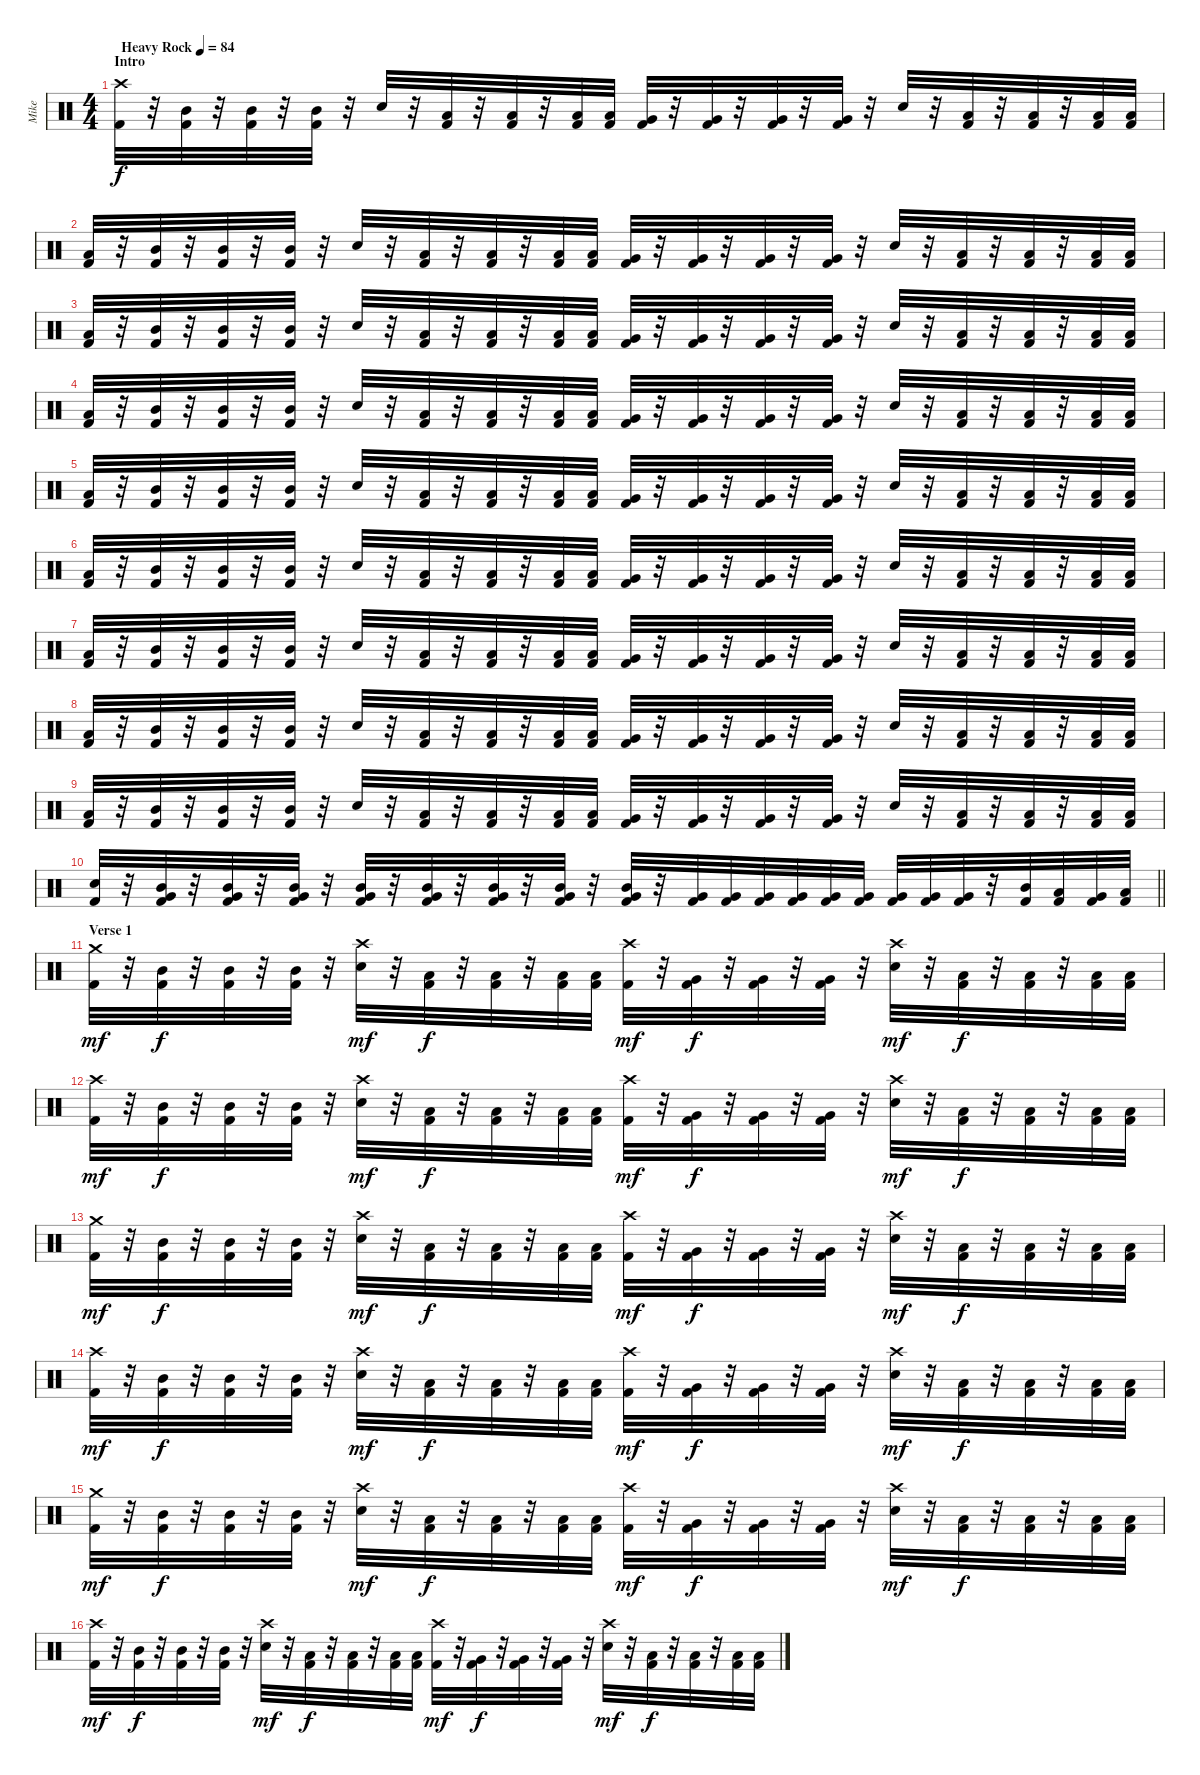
\track ("Mike" "Mike") {instrument percussion}
\staff {score}
\articulation defaults
\ts (4 4)
\section ("" "Intro")
\tempo (84 "Heavy Rock")
\clef neutral
\ks c
("Crash high (hit)" "Kick (hit) 2").32{dy f} r.32 ("Mid Tom (hit)" "Kick (hit) 2").32 r.32 ("Mid Tom (hit)" "Kick (hit) 2").32 r.32 ("Mid Tom (hit)" "Kick (hit) 2").32 r.32 "Snare (hit) 2".32 r.32 ("Low Tom (hit)" "Kick (hit) 2").32 r.32 ("Low Tom (hit)" "Kick (hit) 2").32 r.32 ("Low Tom (hit)" "Kick (hit) 2").32 ("Low Tom (hit)" "Kick (hit) 2").32 ("Very Low Tom (hit)" "Kick (hit) 2").32 r.32 ("Very Low Tom (hit)" "Kick (hit) 2").32 r.32 ("Very Low Tom (hit)" "Kick (hit) 2").32 r.32 ("Very Low Tom (hit)" "Kick (hit) 2").32 r.32 "Snare (hit) 2".32 r.32 ("Low Tom (hit)" "Kick (hit) 2").32 r.32 ("Low Tom (hit)" "Kick (hit) 2").32 r.32 ("Low Tom (hit)" "Kick (hit) 2").32 ("Low Tom (hit)" "Kick (hit) 2").32 |
("Low Tom (hit)" "Kick (hit) 2").32 r.32 ("Mid Tom (hit)" "Kick (hit) 2").32 r.32 ("Mid Tom (hit)" "Kick (hit) 2").32 r.32 ("Mid Tom (hit)" "Kick (hit) 2").32 r.32 "Snare (hit) 2".32 r.32 ("Low Tom (hit)" "Kick (hit) 2").32 r.32 ("Low Tom (hit)" "Kick (hit) 2").32 r.32 ("Low Tom (hit)" "Kick (hit) 2").32 ("Low Tom (hit)" "Kick (hit) 2").32 ("Very Low Tom (hit)" "Kick (hit) 2").32 r.32 ("Very Low Tom (hit)" "Kick (hit) 2").32 r.32 ("Very Low Tom (hit)" "Kick (hit) 2").32 r.32 ("Very Low Tom (hit)" "Kick (hit) 2").32 r.32 "Snare (hit) 2".32 r.32 ("Low Tom (hit)" "Kick (hit) 2").32 r.32 ("Low Tom (hit)" "Kick (hit) 2").32 r.32 ("Low Tom (hit)" "Kick (hit) 2").32 ("Low Tom (hit)" "Kick (hit) 2").32 |
("Low Tom (hit)" "Kick (hit) 2").32 r.32 ("Mid Tom (hit)" "Kick (hit) 2").32 r.32 ("Mid Tom (hit)" "Kick (hit) 2").32 r.32 ("Mid Tom (hit)" "Kick (hit) 2").32 r.32 "Snare (hit) 2".32 r.32 ("Low Tom (hit)" "Kick (hit) 2").32 r.32 ("Low Tom (hit)" "Kick (hit) 2").32 r.32 ("Low Tom (hit)" "Kick (hit) 2").32 ("Low Tom (hit)" "Kick (hit) 2").32 ("Very Low Tom (hit)" "Kick (hit) 2").32 r.32 ("Very Low Tom (hit)" "Kick (hit) 2").32 r.32 ("Very Low Tom (hit)" "Kick (hit) 2").32 r.32 ("Very Low Tom (hit)" "Kick (hit) 2").32 r.32 "Snare (hit) 2".32 r.32 ("Low Tom (hit)" "Kick (hit) 2").32 r.32 ("Low Tom (hit)" "Kick (hit) 2").32 r.32 ("Low Tom (hit)" "Kick (hit) 2").32 ("Low Tom (hit)" "Kick (hit) 2").32 |
("Low Tom (hit)" "Kick (hit) 2").32 r.32 ("Mid Tom (hit)" "Kick (hit) 2").32 r.32 ("Mid Tom (hit)" "Kick (hit) 2").32 r.32 ("Mid Tom (hit)" "Kick (hit) 2").32 r.32 "Snare (hit) 2".32 r.32 ("Low Tom (hit)" "Kick (hit) 2").32 r.32 ("Low Tom (hit)" "Kick (hit) 2").32 r.32 ("Low Tom (hit)" "Kick (hit) 2").32 ("Low Tom (hit)" "Kick (hit) 2").32 ("Very Low Tom (hit)" "Kick (hit) 2").32 r.32 ("Very Low Tom (hit)" "Kick (hit) 2").32 r.32 ("Very Low Tom (hit)" "Kick (hit) 2").32 r.32 ("Very Low Tom (hit)" "Kick (hit) 2").32 r.32 "Snare (hit) 2".32 r.32 ("Low Tom (hit)" "Kick (hit) 2").32 r.32 ("Low Tom (hit)" "Kick (hit) 2").32 r.32 ("Low Tom (hit)" "Kick (hit) 2").32 ("Low Tom (hit)" "Kick (hit) 2").32 |
("Low Tom (hit)" "Kick (hit) 2").32 r.32 ("Mid Tom (hit)" "Kick (hit) 2").32 r.32 ("Mid Tom (hit)" "Kick (hit) 2").32 r.32 ("Mid Tom (hit)" "Kick (hit) 2").32 r.32 "Snare (hit) 2".32 r.32 ("Low Tom (hit)" "Kick (hit) 2").32 r.32 ("Low Tom (hit)" "Kick (hit) 2").32 r.32 ("Low Tom (hit)" "Kick (hit) 2").32 ("Low Tom (hit)" "Kick (hit) 2").32 ("Very Low Tom (hit)" "Kick (hit) 2").32 r.32 ("Very Low Tom (hit)" "Kick (hit) 2").32 r.32 ("Very Low Tom (hit)" "Kick (hit) 2").32 r.32 ("Very Low Tom (hit)" "Kick (hit) 2").32 r.32 "Snare (hit) 2".32 r.32 ("Low Tom (hit)" "Kick (hit) 2").32 r.32 ("Low Tom (hit)" "Kick (hit) 2").32 r.32 ("Low Tom (hit)" "Kick (hit) 2").32 ("Low Tom (hit)" "Kick (hit) 2").32 |
("Low Tom (hit)" "Kick (hit) 2").32 r.32 ("Mid Tom (hit)" "Kick (hit) 2").32 r.32 ("Mid Tom (hit)" "Kick (hit) 2").32 r.32 ("Mid Tom (hit)" "Kick (hit) 2").32 r.32 "Snare (hit) 2".32 r.32 ("Low Tom (hit)" "Kick (hit) 2").32 r.32 ("Low Tom (hit)" "Kick (hit) 2").32 r.32 ("Low Tom (hit)" "Kick (hit) 2").32 ("Low Tom (hit)" "Kick (hit) 2").32 ("Very Low Tom (hit)" "Kick (hit) 2").32 r.32 ("Very Low Tom (hit)" "Kick (hit) 2").32 r.32 ("Very Low Tom (hit)" "Kick (hit) 2").32 r.32 ("Very Low Tom (hit)" "Kick (hit) 2").32 r.32 "Snare (hit) 2".32 r.32 ("Low Tom (hit)" "Kick (hit) 2").32 r.32 ("Low Tom (hit)" "Kick (hit) 2").32 r.32 ("Low Tom (hit)" "Kick (hit) 2").32 ("Low Tom (hit)" "Kick (hit) 2").32 |
("Low Tom (hit)" "Kick (hit) 2").32 r.32 ("Mid Tom (hit)" "Kick (hit) 2").32 r.32 ("Mid Tom (hit)" "Kick (hit) 2").32 r.32 ("Mid Tom (hit)" "Kick (hit) 2").32 r.32 "Snare (hit) 2".32 r.32 ("Low Tom (hit)" "Kick (hit) 2").32 r.32 ("Low Tom (hit)" "Kick (hit) 2").32 r.32 ("Low Tom (hit)" "Kick (hit) 2").32 ("Low Tom (hit)" "Kick (hit) 2").32 ("Very Low Tom (hit)" "Kick (hit) 2").32 r.32 ("Very Low Tom (hit)" "Kick (hit) 2").32 r.32 ("Very Low Tom (hit)" "Kick (hit) 2").32 r.32 ("Very Low Tom (hit)" "Kick (hit) 2").32 r.32 "Snare (hit) 2".32 r.32 ("Low Tom (hit)" "Kick (hit) 2").32 r.32 ("Low Tom (hit)" "Kick (hit) 2").32 r.32 ("Low Tom (hit)" "Kick (hit) 2").32 ("Low Tom (hit)" "Kick (hit) 2").32 |
("Low Tom (hit)" "Kick (hit) 2").32 r.32 ("Mid Tom (hit)" "Kick (hit) 2").32 r.32 ("Mid Tom (hit)" "Kick (hit) 2").32 r.32 ("Mid Tom (hit)" "Kick (hit) 2").32 r.32 "Snare (hit) 2".32 r.32 ("Low Tom (hit)" "Kick (hit) 2").32 r.32 ("Low Tom (hit)" "Kick (hit) 2").32 r.32 ("Low Tom (hit)" "Kick (hit) 2").32 ("Low Tom (hit)" "Kick (hit) 2").32 ("Very Low Tom (hit)" "Kick (hit) 2").32 r.32 ("Very Low Tom (hit)" "Kick (hit) 2").32 r.32 ("Very Low Tom (hit)" "Kick (hit) 2").32 r.32 ("Very Low Tom (hit)" "Kick (hit) 2").32 r.32 "Snare (hit) 2".32 r.32 ("Low Tom (hit)" "Kick (hit) 2").32 r.32 ("Low Tom (hit)" "Kick (hit) 2").32 r.32 ("Low Tom (hit)" "Kick (hit) 2").32 ("Low Tom (hit)" "Kick (hit) 2").32 |
("Low Tom (hit)" "Kick (hit) 2").32 r.32 ("Mid Tom (hit)" "Kick (hit) 2").32 r.32 ("Mid Tom (hit)" "Kick (hit) 2").32 r.32 ("Mid Tom (hit)" "Kick (hit) 2").32 r.32 "Snare (hit) 2".32 r.32 ("Low Tom (hit)" "Kick (hit) 2").32 r.32 ("Low Tom (hit)" "Kick (hit) 2").32 r.32 ("Low Tom (hit)" "Kick (hit) 2").32 ("Low Tom (hit)" "Kick (hit) 2").32 ("Very Low Tom (hit)" "Kick (hit) 2").32 r.32 ("Very Low Tom (hit)" "Kick (hit) 2").32 r.32 ("Very Low Tom (hit)" "Kick (hit) 2").32 r.32 ("Very Low Tom (hit)" "Kick (hit) 2").32 r.32 "Snare (hit) 2".32 r.32 ("Low Tom (hit)" "Kick (hit) 2").32 r.32 ("Low Tom (hit)" "Kick (hit) 2").32 r.32 ("Low Tom (hit)" "Kick (hit) 2").32 ("Low Tom (hit)" "Kick (hit) 2").32 |
\barLineRight lightlight
("Snare (hit) 2" "Kick (hit) 2").32 r.32 ("Mid Tom (hit)" "Very Low Tom (hit)" "Kick (hit) 2").32 r.32 ("Mid Tom (hit)" "Very Low Tom (hit)" "Kick (hit) 2").32 r.32 ("Mid Tom (hit)" "Very Low Tom (hit)" "Kick (hit) 2").32 r.32 ("Mid Tom (hit)" "Very Low Tom (hit)" "Kick (hit) 2").32 r.32 ("Mid Tom (hit)" "Very Low Tom (hit)" "Kick (hit) 2").32 r.32 ("Mid Tom (hit)" "Very Low Tom (hit)" "Kick (hit) 2").32 r.32 ("Mid Tom (hit)" "Very Low Tom (hit)" "Kick (hit) 2").32 r.32 ("Mid Tom (hit)" "Very Low Tom (hit)" "Kick (hit) 2").32 r.32 ("Very Low Tom (hit)" "Kick (hit) 2").32 ("Very Low Tom (hit)" "Kick (hit) 2").32 ("Very Low Tom (hit)" "Kick (hit) 2").32 ("Very Low Tom (hit)" "Kick (hit) 2").32 ("Very Low Tom (hit)" "Kick (hit) 2").32 ("Very Low Tom (hit)" "Kick (hit) 2").32 ("Very Low Tom (hit)" "Kick (hit) 2").32 ("Very Low Tom (hit)" "Kick (hit) 2").32 ("Very Low Tom (hit)" "Kick (hit) 2").32 r.32 ("Mid Tom (hit)" "Kick (hit) 2").32 ("Low Tom (hit)" "Kick (hit) 2").32 ("Very Low Tom (hit)" "Kick (hit) 2").32 ("Low Floor Tom (hit)" "Kick (hit) 2").32 |
\section ("" "Verse 1")
("Crash medium (hit)" "Kick (hit) 2").32{dy mf} r.32 ("Mid Tom (hit)" "Kick (hit) 2").32{dy f} r.32 ("Mid Tom (hit)" "Kick (hit) 2").32 r.32 ("Mid Tom (hit)" "Kick (hit) 2").32 r.32 ("Crash high (hit)" "Snare (hit) 2").32{dy mf} r.32 ("Low Tom (hit)" "Kick (hit) 2").32{dy f} r.32 ("Low Tom (hit)" "Kick (hit) 2").32 r.32 ("Low Tom (hit)" "Kick (hit) 2").32 ("Low Tom (hit)" "Kick (hit) 2").32 ("Crash high (hit)" "Kick (hit) 2").32{dy mf} r.32 ("Very Low Tom (hit)" "Kick (hit) 2").32{dy f} r.32 ("Very Low Tom (hit)" "Kick (hit) 2").32 r.32 ("Very Low Tom (hit)" "Kick (hit) 2").32 r.32 ("Crash high (hit)" "Snare (hit) 2").32{dy mf} r.32 ("Low Tom (hit)" "Kick (hit) 2").32{dy f} r.32 ("Low Tom (hit)" "Kick (hit) 2").32 r.32 ("Low Tom (hit)" "Kick (hit) 2").32 ("Low Tom (hit)" "Kick (hit) 2").32 |
("Crash high (hit)" "Kick (hit) 2").32{dy mf} r.32 ("Mid Tom (hit)" "Kick (hit) 2").32{dy f} r.32 ("Mid Tom (hit)" "Kick (hit) 2").32 r.32 ("Mid Tom (hit)" "Kick (hit) 2").32 r.32 ("Crash high (hit)" "Snare (hit) 2").32{dy mf} r.32 ("Low Tom (hit)" "Kick (hit) 2").32{dy f} r.32 ("Low Tom (hit)" "Kick (hit) 2").32 r.32 ("Low Tom (hit)" "Kick (hit) 2").32 ("Low Tom (hit)" "Kick (hit) 2").32 ("Crash high (hit)" "Kick (hit) 2").32{dy mf} r.32 ("Very Low Tom (hit)" "Kick (hit) 2").32{dy f} r.32 ("Very Low Tom (hit)" "Kick (hit) 2").32 r.32 ("Very Low Tom (hit)" "Kick (hit) 2").32 r.32 ("Crash high (hit)" "Snare (hit) 2").32{dy mf} r.32 ("Low Tom (hit)" "Kick (hit) 2").32{dy f} r.32 ("Low Tom (hit)" "Kick (hit) 2").32 r.32 ("Low Tom (hit)" "Kick (hit) 2").32 ("Low Tom (hit)" "Kick (hit) 2").32 |
("Crash medium (hit)" "Kick (hit) 2").32{dy mf} r.32 ("Mid Tom (hit)" "Kick (hit) 2").32{dy f} r.32 ("Mid Tom (hit)" "Kick (hit) 2").32 r.32 ("Mid Tom (hit)" "Kick (hit) 2").32 r.32 ("Crash high (hit)" "Snare (hit) 2").32{dy mf} r.32 ("Low Tom (hit)" "Kick (hit) 2").32{dy f} r.32 ("Low Tom (hit)" "Kick (hit) 2").32 r.32 ("Low Tom (hit)" "Kick (hit) 2").32 ("Low Tom (hit)" "Kick (hit) 2").32 ("Crash high (hit)" "Kick (hit) 2").32{dy mf} r.32 ("Very Low Tom (hit)" "Kick (hit) 2").32{dy f} r.32 ("Very Low Tom (hit)" "Kick (hit) 2").32 r.32 ("Very Low Tom (hit)" "Kick (hit) 2").32 r.32 ("Crash high (hit)" "Snare (hit) 2").32{dy mf} r.32 ("Low Tom (hit)" "Kick (hit) 2").32{dy f} r.32 ("Low Tom (hit)" "Kick (hit) 2").32 r.32 ("Low Tom (hit)" "Kick (hit) 2").32 ("Low Tom (hit)" "Kick (hit) 2").32 |
("Crash high (hit)" "Kick (hit) 2").32{dy mf} r.32 ("Mid Tom (hit)" "Kick (hit) 2").32{dy f} r.32 ("Mid Tom (hit)" "Kick (hit) 2").32 r.32 ("Mid Tom (hit)" "Kick (hit) 2").32 r.32 ("Crash high (hit)" "Snare (hit) 2").32{dy mf} r.32 ("Low Tom (hit)" "Kick (hit) 2").32{dy f} r.32 ("Low Tom (hit)" "Kick (hit) 2").32 r.32 ("Low Tom (hit)" "Kick (hit) 2").32 ("Low Tom (hit)" "Kick (hit) 2").32 ("Crash high (hit)" "Kick (hit) 2").32{dy mf} r.32 ("Very Low Tom (hit)" "Kick (hit) 2").32{dy f} r.32 ("Very Low Tom (hit)" "Kick (hit) 2").32 r.32 ("Very Low Tom (hit)" "Kick (hit) 2").32 r.32 ("Crash high (hit)" "Snare (hit) 2").32{dy mf} r.32 ("Low Tom (hit)" "Kick (hit) 2").32{dy f} r.32 ("Low Tom (hit)" "Kick (hit) 2").32 r.32 ("Low Tom (hit)" "Kick (hit) 2").32 ("Low Tom (hit)" "Kick (hit) 2").32 |
("Crash medium (hit)" "Kick (hit) 2").32{dy mf} r.32 ("Mid Tom (hit)" "Kick (hit) 2").32{dy f} r.32 ("Mid Tom (hit)" "Kick (hit) 2").32 r.32 ("Mid Tom (hit)" "Kick (hit) 2").32 r.32 ("Crash high (hit)" "Snare (hit) 2").32{dy mf} r.32 ("Low Tom (hit)" "Kick (hit) 2").32{dy f} r.32 ("Low Tom (hit)" "Kick (hit) 2").32 r.32 ("Low Tom (hit)" "Kick (hit) 2").32 ("Low Tom (hit)" "Kick (hit) 2").32 ("Crash high (hit)" "Kick (hit) 2").32{dy mf} r.32 ("Very Low Tom (hit)" "Kick (hit) 2").32{dy f} r.32 ("Very Low Tom (hit)" "Kick (hit) 2").32 r.32 ("Very Low Tom (hit)" "Kick (hit) 2").32 r.32 ("Crash high (hit)" "Snare (hit) 2").32{dy mf} r.32 ("Low Tom (hit)" "Kick (hit) 2").32{dy f} r.32 ("Low Tom (hit)" "Kick (hit) 2").32 r.32 ("Low Tom (hit)" "Kick (hit) 2").32 ("Low Tom (hit)" "Kick (hit) 2").32 |
("Crash high (hit)" "Kick (hit) 2").32{dy mf} r.32 ("Mid Tom (hit)" "Kick (hit) 2").32{dy f} r.32 ("Mid Tom (hit)" "Kick (hit) 2").32 r.32 ("Mid Tom (hit)" "Kick (hit) 2").32 r.32 ("Crash high (hit)" "Snare (hit) 2").32{dy mf} r.32 ("Low Tom (hit)" "Kick (hit) 2").32{dy f} r.32 ("Low Tom (hit)" "Kick (hit) 2").32 r.32 ("Low Tom (hit)" "Kick (hit) 2").32 ("Low Tom (hit)" "Kick (hit) 2").32 ("Crash high (hit)" "Kick (hit) 2").32{dy mf} r.32 ("Very Low Tom (hit)" "Kick (hit) 2").32{dy f} r.32 ("Very Low Tom (hit)" "Kick (hit) 2").32 r.32 ("Very Low Tom (hit)" "Kick (hit) 2").32 r.32 ("Crash high (hit)" "Snare (hit) 2").32{dy mf} r.32 ("Low Tom (hit)" "Kick (hit) 2").32{dy f} r.32 ("Low Tom (hit)" "Kick (hit) 2").32 r.32 ("Low Tom (hit)" "Kick (hit) 2").32 ("Low Tom (hit)" "Kick (hit) 2").32
